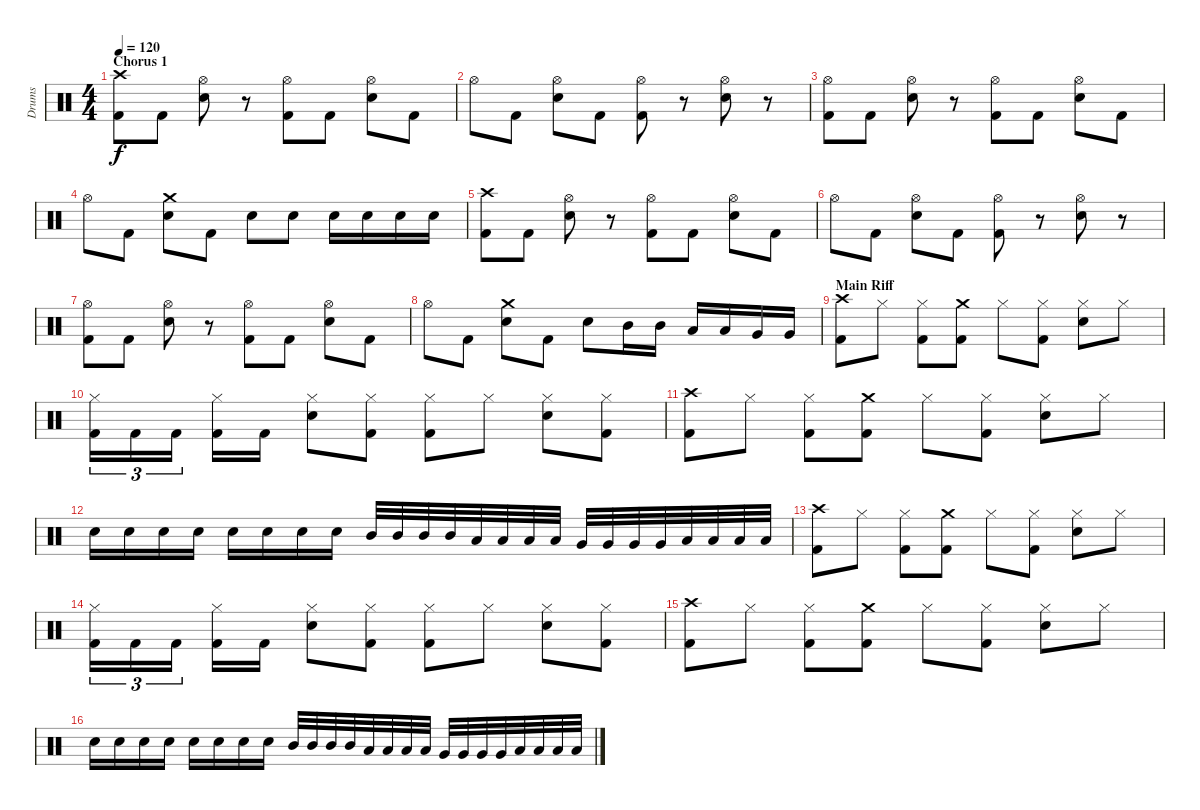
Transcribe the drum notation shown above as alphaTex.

\track ("Drums" "Drums") {instrument percussion}
\staff {score}
\articulation defaults
\ts (4 4)
\section ("" "Chorus 1")
\tempo 120
\clef neutral
\ks c
("Crash high (hit)" "Kick (hit) 2").8{dy f} "Kick (hit) 2".8 ("Hi-Hat (open)" "Snare (hit) 2").8 r.8 ("Hi-Hat (open)" "Kick (hit) 2").8 "Kick (hit) 2".8 ("Hi-Hat (open)" "Snare (hit) 2").8 "Kick (hit) 2".8 |
"Hi-Hat (open)".8 "Kick (hit) 2".8 ("Hi-Hat (open)" "Snare (hit) 2").8 "Kick (hit) 2".8 ("Hi-Hat (open)" "Kick (hit) 2").8 r.8 ("Hi-Hat (open)" "Snare (hit) 2").8 r.8 |
("Hi-Hat (open)" "Kick (hit) 2").8 "Kick (hit) 2".8 ("Hi-Hat (open)" "Snare (hit) 2").8 r.8 ("Hi-Hat (open)" "Kick (hit) 2").8 "Kick (hit) 2".8 ("Hi-Hat (open)" "Snare (hit) 2").8 "Kick (hit) 2".8 |
"Hi-Hat (open)".8 "Kick (hit) 2".8 ("Crash medium (hit)" "Snare (hit) 2").8 "Kick (hit) 2".8 "Snare (hit) 2".8 "Snare (hit) 2".8 "Snare (hit) 2".16 "Snare (hit) 2".16 "Snare (hit) 2".16 "Snare (hit) 2".16 |
("Crash high (hit)" "Kick (hit) 2").8 "Kick (hit) 2".8 ("Hi-Hat (open)" "Snare (hit) 2").8 r.8 ("Hi-Hat (open)" "Kick (hit) 2").8 "Kick (hit) 2".8 ("Hi-Hat (open)" "Snare (hit) 2").8 "Kick (hit) 2".8 |
"Hi-Hat (open)".8 "Kick (hit) 2".8 ("Hi-Hat (open)" "Snare (hit) 2").8 "Kick (hit) 2".8 ("Hi-Hat (open)" "Kick (hit) 2").8 r.8 ("Hi-Hat (open)" "Snare (hit) 2").8 r.8 |
("Hi-Hat (open)" "Kick (hit) 2").8 "Kick (hit) 2".8 ("Hi-Hat (open)" "Snare (hit) 2").8 r.8 ("Hi-Hat (open)" "Kick (hit) 2").8 "Kick (hit) 2".8 ("Hi-Hat (open)" "Snare (hit) 2").8 "Kick (hit) 2".8 |
"Hi-Hat (open)".8 "Kick (hit) 2".8 ("Crash medium (hit)" "Snare (hit) 2").8 "Kick (hit) 2".8 "Snare (hit) 2".8 "Mid Tom (hit)".16 "Mid Tom (hit)".16 "Low Tom (hit)".16 "Low Tom (hit)".16 "Very Low Tom (hit)".16 "Very Low Tom (hit)".16 |
\section ("" "Main Riff")
("Crash high (hit)" "Kick (hit) 2").8 "Hi-Hat (closed)".8 ("Hi-Hat (closed)" "Kick (hit) 2").8 ("Crash medium (hit)" "Kick (hit) 2").8 "Hi-Hat (closed)".8 ("Hi-Hat (closed)" "Kick (hit) 2").8 ("Hi-Hat (closed)" "Snare (hit) 2").8 "Hi-Hat (closed)".8 |
("Hi-Hat (closed)" "Kick (hit) 2").16{tu (3 2)} "Kick (hit) 2".16{tu (3 2)} "Kick (hit) 2".16{tu (3 2)} ("Hi-Hat (closed)" "Kick (hit) 2").16 "Kick (hit) 2".16 ("Hi-Hat (closed)" "Snare (hit) 2").8 ("Hi-Hat (closed)" "Kick (hit) 2").8 ("Hi-Hat (closed)" "Kick (hit) 2").8 "Hi-Hat (closed)".8 ("Hi-Hat (closed)" "Snare (hit) 2").8 ("Hi-Hat (closed)" "Kick (hit) 2").8 |
("Crash high (hit)" "Kick (hit) 2").8 "Hi-Hat (closed)".8 ("Hi-Hat (closed)" "Kick (hit) 2").8 ("Crash medium (hit)" "Kick (hit) 2").8 "Hi-Hat (closed)".8 ("Hi-Hat (closed)" "Kick (hit) 2").8 ("Hi-Hat (closed)" "Snare (hit) 2").8 "Hi-Hat (closed)".8 |
"Snare (hit) 2".16 "Snare (hit) 2".16 "Snare (hit) 2".16 "Snare (hit) 2".16 "Snare (hit) 2".16 "Snare (hit) 2".16 "Snare (hit) 2".16 "Snare (hit) 2".16 "Mid Tom (hit)".32 "Mid Tom (hit)".32 "Mid Tom (hit)".32 "Mid Tom (hit)".32 "Low Tom (hit)".32 "Low Tom (hit)".32 "Low Tom (hit)".32 "Low Tom (hit)".32 "Very Low Tom (hit)".32 "Very Low Tom (hit)".32 "Very Low Tom (hit)".32 "Very Low Tom (hit)".32 "Low Floor Tom (hit)".32 "Low Floor Tom (hit)".32 "Low Floor Tom (hit)".32 "Low Floor Tom (hit)".32 |
("Crash high (hit)" "Kick (hit) 2").8 "Hi-Hat (closed)".8 ("Hi-Hat (closed)" "Kick (hit) 2").8 ("Crash medium (hit)" "Kick (hit) 2").8 "Hi-Hat (closed)".8 ("Hi-Hat (closed)" "Kick (hit) 2").8 ("Hi-Hat (closed)" "Snare (hit) 2").8 "Hi-Hat (closed)".8 |
("Hi-Hat (closed)" "Kick (hit) 2").16{tu (3 2)} "Kick (hit) 2".16{tu (3 2)} "Kick (hit) 2".16{tu (3 2)} ("Hi-Hat (closed)" "Kick (hit) 2").16 "Kick (hit) 2".16 ("Hi-Hat (closed)" "Snare (hit) 2").8 ("Hi-Hat (closed)" "Kick (hit) 2").8 ("Hi-Hat (closed)" "Kick (hit) 2").8 "Hi-Hat (closed)".8 ("Hi-Hat (closed)" "Snare (hit) 2").8 ("Hi-Hat (closed)" "Kick (hit) 2").8 |
("Crash high (hit)" "Kick (hit) 2").8 "Hi-Hat (closed)".8 ("Hi-Hat (closed)" "Kick (hit) 2").8 ("Crash medium (hit)" "Kick (hit) 2").8 "Hi-Hat (closed)".8 ("Hi-Hat (closed)" "Kick (hit) 2").8 ("Hi-Hat (closed)" "Snare (hit) 2").8 "Hi-Hat (closed)".8 |
"Snare (hit) 2".16 "Snare (hit) 2".16 "Snare (hit) 2".16 "Snare (hit) 2".16 "Snare (hit) 2".16 "Snare (hit) 2".16 "Snare (hit) 2".16 "Snare (hit) 2".16 "Mid Tom (hit)".32 "Mid Tom (hit)".32 "Mid Tom (hit)".32 "Mid Tom (hit)".32 "Low Tom (hit)".32 "Low Tom (hit)".32 "Low Tom (hit)".32 "Low Tom (hit)".32 "Very Low Tom (hit)".32 "Very Low Tom (hit)".32 "Very Low Tom (hit)".32 "Very Low Tom (hit)".32 "Low Floor Tom (hit)".32 "Low Floor Tom (hit)".32 "Low Floor Tom (hit)".32 "Low Floor Tom (hit)".32
